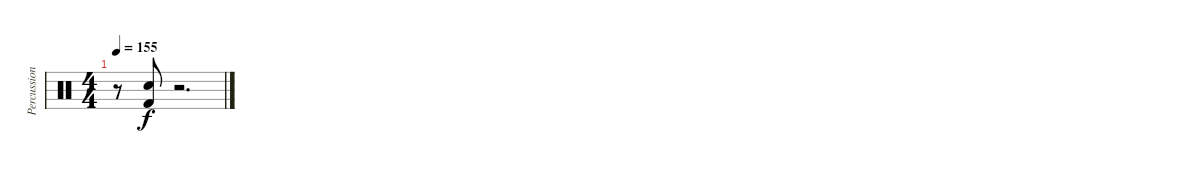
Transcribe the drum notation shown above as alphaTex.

\track ("Percussion" "Percussion") {instrument percussion}
\staff {score}
\articulation defaults
\ts (4 4)
\tempo 155
\clef neutral
\ks c
r.8{dy f} ("Electric Snare (hit)" "Kick (hit) 2").8 r.2{d}
